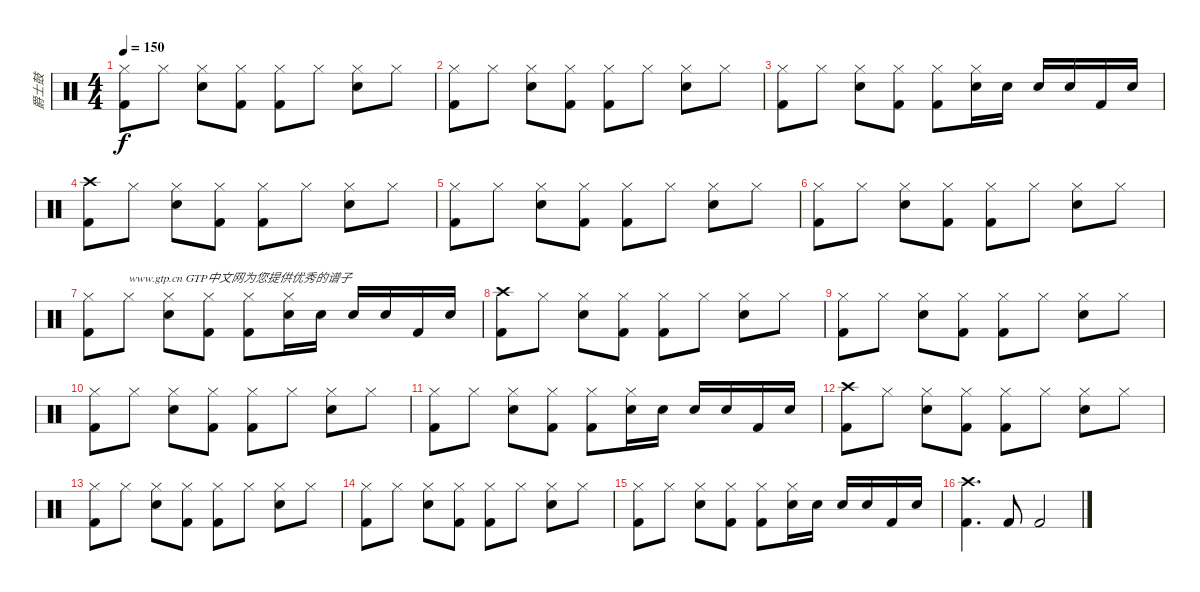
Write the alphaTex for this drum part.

\track ("爵士鼓" "爵士鼓") {instrument percussion}
\staff {score}
\articulation defaults
\ts (4 4)
\tempo 150
\clef neutral
\ks c
("Hi-Hat (closed)" "Kick (hit) 2").8{dy f} "Hi-Hat (closed)".8 ("Hi-Hat (closed)" "Electric Snare (hit)").8 ("Hi-Hat (closed)" "Kick (hit) 2").8 ("Hi-Hat (closed)" "Kick (hit) 2").8 "Hi-Hat (closed)".8 ("Hi-Hat (closed)" "Electric Snare (hit)").8 "Hi-Hat (closed)".8 |
("Hi-Hat (closed)" "Kick (hit) 2").8 "Hi-Hat (closed)".8 ("Hi-Hat (closed)" "Electric Snare (hit)").8 ("Hi-Hat (closed)" "Kick (hit) 2").8 ("Hi-Hat (closed)" "Kick (hit) 2").8 "Hi-Hat (closed)".8 ("Hi-Hat (closed)" "Electric Snare (hit)").8 "Hi-Hat (closed)".8 |
("Hi-Hat (closed)" "Kick (hit) 2").8 "Hi-Hat (closed)".8 ("Hi-Hat (closed)" "Electric Snare (hit)").8 ("Hi-Hat (closed)" "Kick (hit) 2").8 ("Hi-Hat (closed)" "Kick (hit) 2").8 ("Hi-Hat (closed)" "Electric Snare (hit)").16 "Electric Snare (hit)".16 "Electric Snare (hit)".16 "Electric Snare (hit)".16 "Kick (hit) 2".16 "Electric Snare (hit)".16 |
("Crash high (hit)" "Kick (hit) 2").8 "Hi-Hat (closed)".8 ("Hi-Hat (closed)" "Electric Snare (hit)").8 ("Hi-Hat (closed)" "Kick (hit) 2").8 ("Hi-Hat (closed)" "Kick (hit) 2").8 "Hi-Hat (closed)".8 ("Hi-Hat (closed)" "Electric Snare (hit)").8 "Hi-Hat (closed)".8 |
("Hi-Hat (closed)" "Kick (hit) 2").8 "Hi-Hat (closed)".8 ("Hi-Hat (closed)" "Electric Snare (hit)").8 ("Hi-Hat (closed)" "Kick (hit) 2").8 ("Hi-Hat (closed)" "Kick (hit) 2").8 "Hi-Hat (closed)".8 ("Hi-Hat (closed)" "Electric Snare (hit)").8 "Hi-Hat (closed)".8 |
("Hi-Hat (closed)" "Kick (hit) 2").8 "Hi-Hat (closed)".8 ("Hi-Hat (closed)" "Electric Snare (hit)").8 ("Hi-Hat (closed)" "Kick (hit) 2").8 ("Hi-Hat (closed)" "Kick (hit) 2").8 "Hi-Hat (closed)".8 ("Hi-Hat (closed)" "Electric Snare (hit)").8 "Hi-Hat (closed)".8 |
("Hi-Hat (closed)" "Kick (hit) 2").8 "Hi-Hat (closed)".8{txt "www.gtp.cn GTP中文网为您提供优秀的谱子"} ("Hi-Hat (closed)" "Electric Snare (hit)").8 ("Hi-Hat (closed)" "Kick (hit) 2").8 ("Hi-Hat (closed)" "Kick (hit) 2").8 ("Hi-Hat (closed)" "Electric Snare (hit)").16 "Electric Snare (hit)".16 "Electric Snare (hit)".16 "Electric Snare (hit)".16 "Kick (hit) 2".16 "Electric Snare (hit)".16 |
("Crash high (hit)" "Kick (hit) 2").8 "Hi-Hat (closed)".8 ("Hi-Hat (closed)" "Electric Snare (hit)").8 ("Hi-Hat (closed)" "Kick (hit) 2").8 ("Hi-Hat (closed)" "Kick (hit) 2").8 "Hi-Hat (closed)".8 ("Hi-Hat (closed)" "Electric Snare (hit)").8 "Hi-Hat (closed)".8 |
("Hi-Hat (closed)" "Kick (hit) 2").8 "Hi-Hat (closed)".8 ("Hi-Hat (closed)" "Electric Snare (hit)").8 ("Hi-Hat (closed)" "Kick (hit) 2").8 ("Hi-Hat (closed)" "Kick (hit) 2").8 "Hi-Hat (closed)".8 ("Hi-Hat (closed)" "Electric Snare (hit)").8 "Hi-Hat (closed)".8 |
("Hi-Hat (closed)" "Kick (hit) 2").8 "Hi-Hat (closed)".8 ("Hi-Hat (closed)" "Electric Snare (hit)").8 ("Hi-Hat (closed)" "Kick (hit) 2").8 ("Hi-Hat (closed)" "Kick (hit) 2").8 "Hi-Hat (closed)".8 ("Hi-Hat (closed)" "Electric Snare (hit)").8 "Hi-Hat (closed)".8 |
("Hi-Hat (closed)" "Kick (hit) 2").8 "Hi-Hat (closed)".8 ("Hi-Hat (closed)" "Electric Snare (hit)").8 ("Hi-Hat (closed)" "Kick (hit) 2").8 ("Hi-Hat (closed)" "Kick (hit) 2").8 ("Hi-Hat (closed)" "Electric Snare (hit)").16 "Electric Snare (hit)".16 "Electric Snare (hit)".16 "Electric Snare (hit)".16 "Kick (hit) 2".16 "Electric Snare (hit)".16 |
("Crash high (hit)" "Kick (hit) 2").8 "Hi-Hat (closed)".8 ("Hi-Hat (closed)" "Electric Snare (hit)").8 ("Hi-Hat (closed)" "Kick (hit) 2").8 ("Hi-Hat (closed)" "Kick (hit) 2").8 "Hi-Hat (closed)".8 ("Hi-Hat (closed)" "Electric Snare (hit)").8 "Hi-Hat (closed)".8 |
("Hi-Hat (closed)" "Kick (hit) 2").8 "Hi-Hat (closed)".8 ("Hi-Hat (closed)" "Electric Snare (hit)").8 ("Hi-Hat (closed)" "Kick (hit) 2").8 ("Hi-Hat (closed)" "Kick (hit) 2").8 "Hi-Hat (closed)".8 ("Hi-Hat (closed)" "Electric Snare (hit)").8 "Hi-Hat (closed)".8 |
("Hi-Hat (closed)" "Kick (hit) 2").8 "Hi-Hat (closed)".8 ("Hi-Hat (closed)" "Electric Snare (hit)").8 ("Hi-Hat (closed)" "Kick (hit) 2").8 ("Hi-Hat (closed)" "Kick (hit) 2").8 "Hi-Hat (closed)".8 ("Hi-Hat (closed)" "Electric Snare (hit)").8 "Hi-Hat (closed)".8 |
("Hi-Hat (closed)" "Kick (hit) 2").8 "Hi-Hat (closed)".8 ("Hi-Hat (closed)" "Electric Snare (hit)").8 ("Hi-Hat (closed)" "Kick (hit) 2").8 ("Hi-Hat (closed)" "Kick (hit) 2").8 ("Hi-Hat (closed)" "Electric Snare (hit)").16 "Electric Snare (hit)".16 "Electric Snare (hit)".16 "Electric Snare (hit)".16 "Kick (hit) 2".16 "Electric Snare (hit)".16 |
("Crash high (hit)" "Kick (hit) 2").4{d} "Kick (hit) 2".8 "Kick (hit) 2".2
